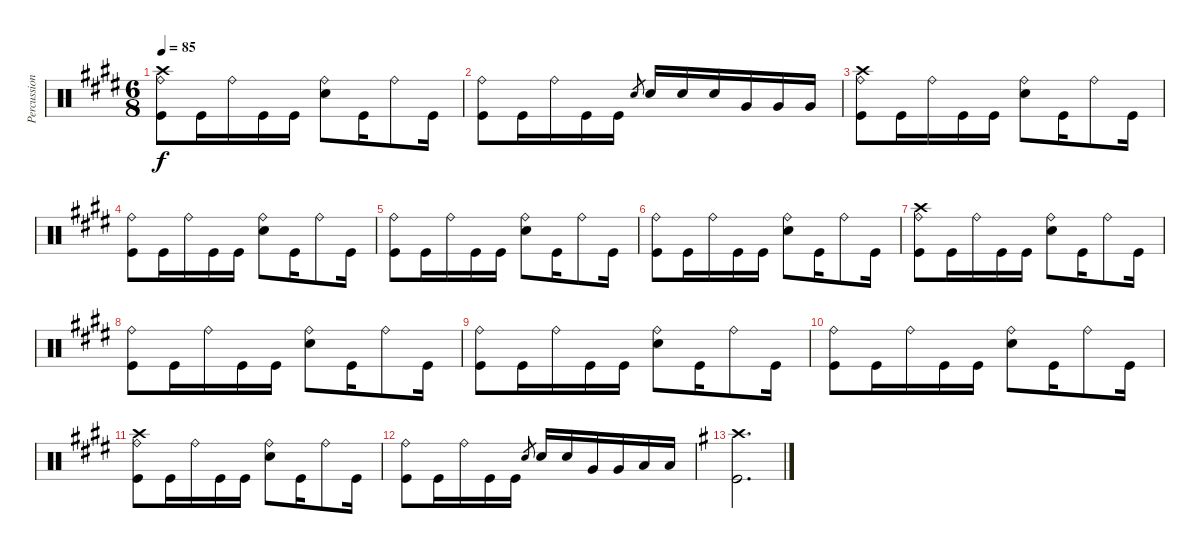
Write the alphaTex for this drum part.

\track ("Percussion" "Percussion") {instrument percussion}
\staff {score}
\articulation defaults
\ts (6 8)
\tempo 85
\clef neutral
\ks c#minor
("Kick (hit)" "Ride (bell)" "Crash high (hit)").8{dy f} "Kick (hit)".16 "Ride (bell)".16 "Kick (hit)".16 "Kick (hit)".16 ("Ride (bell)" "Snare (hit) 2").8 "Kick (hit)".16 "Ride (bell)".8 "Kick (hit)".16 |
("Kick (hit)" "Ride (bell)").8 "Kick (hit)".16 "Ride (bell)".16 "Kick (hit)".16 "Kick (hit)".16 "Snare (hit) 2".8{gr} "Snare (hit) 2".16 "Snare (hit) 2".16 "Snare (hit) 2".16 "Very Low Tom (hit)".16 "Very Low Tom (hit)".16 "Very Low Tom (hit)".16 |
\ks e
("Kick (hit)" "Ride (bell)" "Crash high (hit)").8 "Kick (hit)".16 "Ride (bell)".16 "Kick (hit)".16 "Kick (hit)".16 ("Ride (bell)" "Snare (hit) 2").8 "Kick (hit)".16 "Ride (bell)".8 "Kick (hit)".16 |
\ks c#minor
("Kick (hit)" "Ride (bell)").8 "Kick (hit)".16 "Ride (bell)".16 "Kick (hit)".16 "Kick (hit)".16 ("Ride (bell)" "Snare (hit) 2").8 "Kick (hit)".16 "Ride (bell)".8 "Kick (hit)".16 |
("Kick (hit)" "Ride (bell)").8 "Kick (hit)".16 "Ride (bell)".16 "Kick (hit)".16 "Kick (hit)".16 ("Ride (bell)" "Snare (hit) 2").8 "Kick (hit)".16 "Ride (bell)".8 "Kick (hit)".16 |
\ks e
("Kick (hit)" "Ride (bell)").8 "Kick (hit)".16 "Ride (bell)".16 "Kick (hit)".16 "Kick (hit)".16 ("Ride (bell)" "Snare (hit) 2").8 "Kick (hit)".16 "Ride (bell)".8 "Kick (hit)".16 |
("Kick (hit)" "Ride (bell)" "Crash high (hit)").8 "Kick (hit)".16 "Ride (bell)".16 "Kick (hit)".16 "Kick (hit)".16 ("Ride (bell)" "Snare (hit) 2").8 "Kick (hit)".16 "Ride (bell)".8 "Kick (hit)".16 |
\ks c#minor
("Kick (hit)" "Ride (bell)").8 "Kick (hit)".16 "Ride (bell)".16 "Kick (hit)".16 "Kick (hit)".16 ("Ride (bell)" "Snare (hit) 2").8 "Kick (hit)".16 "Ride (bell)".8 "Kick (hit)".16 |
("Kick (hit)" "Ride (bell)").8 "Kick (hit)".16 "Ride (bell)".16 "Kick (hit)".16 "Kick (hit)".16 ("Ride (bell)" "Snare (hit) 2").8 "Kick (hit)".16 "Ride (bell)".8 "Kick (hit)".16 |
\ks e
("Kick (hit)" "Ride (bell)").8 "Kick (hit)".16 "Ride (bell)".16 "Kick (hit)".16 "Kick (hit)".16 ("Ride (bell)" "Snare (hit) 2").8 "Kick (hit)".16 "Ride (bell)".8 "Kick (hit)".16 |
\ks c#minor
("Kick (hit)" "Ride (bell)" "Crash high (hit)").8 "Kick (hit)".16 "Ride (bell)".16 "Kick (hit)".16 "Kick (hit)".16 ("Ride (bell)" "Snare (hit) 2").8 "Kick (hit)".16 "Ride (bell)".8 "Kick (hit)".16 |
("Kick (hit)" "Ride (bell)").8 "Kick (hit)".16 "Ride (bell)".16 "Kick (hit)".16 "Kick (hit)".16 "Snare (hit) 2".8{gr} "Snare (hit) 2".16 "Snare (hit) 2".16 "Very Low Tom (hit)".16 "Very Low Tom (hit)".16 "Low Floor Tom (hit)".16 "Low Floor Tom (hit)".16 |
\ks g
("Kick (hit)" "Crash high (hit)").2{d}
